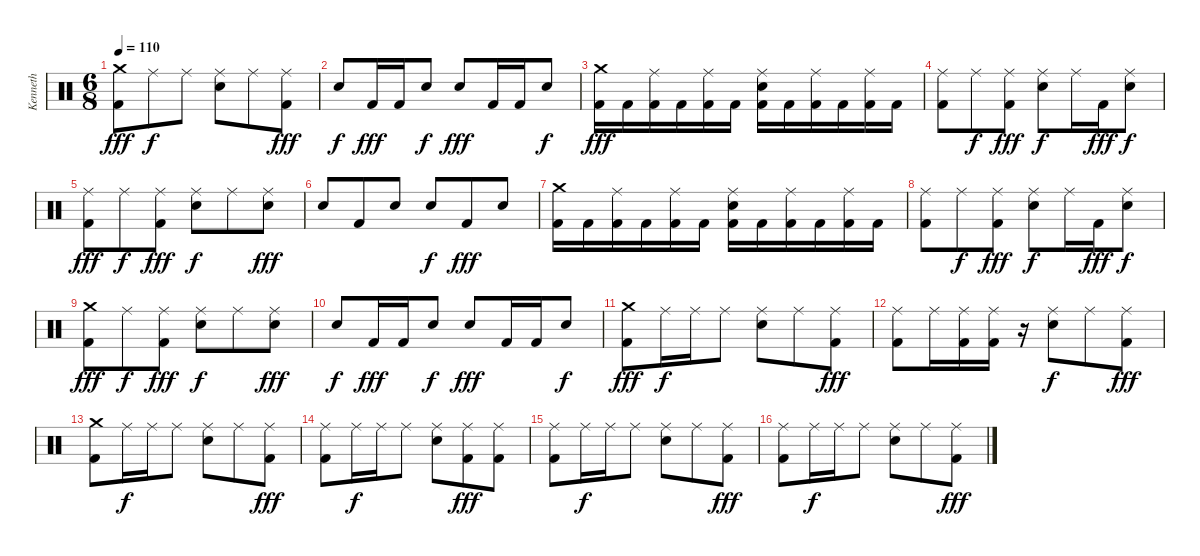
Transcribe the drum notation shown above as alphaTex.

\track ("Kenneth" "Kenneth") {instrument percussion}
\staff {score}
\articulation defaults
\ts (6 8)
\tempo 110
\clef neutral
\ks c
("Crash medium (hit)" "Kick (hit) 2").8{dy fff} "Ride (middle)".8{dy f} "Ride (middle)".8 ("Ride (middle)" "Electric Snare (hit)").8 "Ride (middle)".8 ("Ride (middle)" "Kick (hit) 2").8{dy fff} |
"Electric Snare (hit)".8{dy f} "Kick (hit) 2".16{dy fff} "Kick (hit) 2".16 "Electric Snare (hit)".8{dy f} "Electric Snare (hit)".8{dy fff} "Kick (hit) 2".16 "Kick (hit) 2".16 "Electric Snare (hit)".8{dy f} |
("Crash medium (hit)" "Kick (hit) 2").16{dy fff} "Kick (hit) 2".16 ("Ride (middle)" "Kick (hit) 2").16 "Kick (hit) 2".16 ("Ride (middle)" "Kick (hit) 2").16 "Kick (hit) 2".16 ("Ride (middle)" "Electric Snare (hit)" "Kick (hit) 2").16 "Kick (hit) 2".16 ("Ride (middle)" "Kick (hit) 2").16 "Kick (hit) 2".16 ("Ride (middle)" "Kick (hit) 2").16 "Kick (hit) 2".16 |
("Ride (middle)" "Kick (hit) 2").8 "Ride (middle)".8{dy f} ("Ride (middle)" "Kick (hit) 2").8{dy fff} ("Ride (middle)" "Electric Snare (hit)").8{dy f} "Ride (middle)".16 "Kick (hit) 2".16{dy fff} ("Ride (middle)" "Electric Snare (hit)").8{dy f} |
("Ride (middle)" "Kick (hit) 2").8{dy fff} "Ride (middle)".8{dy f} ("Ride (middle)" "Kick (hit) 2").8{dy fff} ("Ride (middle)" "Electric Snare (hit)").8{dy f} "Ride (middle)".8 ("Ride (middle)" "Electric Snare (hit)").8{dy fff} |
"Electric Snare (hit)".8 "Kick (hit) 2".8 "Electric Snare (hit)".8 "Electric Snare (hit)".8{dy f} "Kick (hit) 2".8{dy fff} "Electric Snare (hit)".8 |
("Crash medium (hit)" "Kick (hit) 2").16 "Kick (hit) 2".16 ("Ride (middle)" "Kick (hit) 2").16 "Kick (hit) 2".16 ("Ride (middle)" "Kick (hit) 2").16 "Kick (hit) 2".16 ("Ride (middle)" "Electric Snare (hit)" "Kick (hit) 2").16 "Kick (hit) 2".16 ("Ride (middle)" "Kick (hit) 2").16 "Kick (hit) 2".16 ("Ride (middle)" "Kick (hit) 2").16 "Kick (hit) 2".16 |
("Ride (middle)" "Kick (hit) 2").8 "Ride (middle)".8{dy f} ("Ride (middle)" "Kick (hit) 2").8{dy fff} ("Ride (middle)" "Electric Snare (hit)").8{dy f} "Ride (middle)".16 "Kick (hit) 2".16{dy fff} ("Ride (middle)" "Electric Snare (hit)").8{dy f} |
("Crash medium (hit)" "Kick (hit) 2").8{dy fff} "Ride (middle)".8{dy f} ("Ride (middle)" "Kick (hit) 2").8{dy fff} ("Ride (middle)" "Electric Snare (hit)").8{dy f} "Ride (middle)".8 ("Ride (middle)" "Electric Snare (hit)").8{dy fff} |
"Electric Snare (hit)".8{dy f} "Kick (hit) 2".16{dy fff} "Kick (hit) 2".16 "Electric Snare (hit)".8{dy f} "Electric Snare (hit)".8{dy fff} "Kick (hit) 2".16 "Kick (hit) 2".16 "Electric Snare (hit)".8{dy f} |
("Crash medium (hit)" "Kick (hit) 2").8{dy fff} "Ride (middle)".16{dy f} "Ride (middle)".16 "Ride (middle)".8 ("Ride (middle)" "Snare (hit) 2").8 "Ride (middle)".8 ("Ride (middle)" "Kick (hit) 2").8{dy fff} |
("Ride (middle)" "Kick (hit) 2").8 "Ride (middle)".16 ("Ride (middle)" "Kick (hit) 2").16 ("Ride (middle)" "Kick (hit) 2").16 r.16 ("Ride (middle)" "Snare (hit) 2").8{dy f} "Ride (middle)".8 ("Ride (middle)" "Kick (hit) 2").8{dy fff} |
("Crash medium (hit)" "Kick (hit) 2").8 "Ride (middle)".16{dy f} "Ride (middle)".16 "Ride (middle)".8 ("Ride (middle)" "Snare (hit) 2").8 "Ride (middle)".8 ("Ride (middle)" "Kick (hit) 2").8{dy fff} |
("Ride (middle)" "Kick (hit) 2").8 "Ride (middle)".16{dy f} "Ride (middle)".16 "Ride (middle)".8 ("Ride (middle)" "Snare (hit) 2").8 ("Ride (middle)" "Kick (hit) 2").8{dy fff} ("Ride (middle)" "Kick (hit) 2").8 |
("Ride (middle)" "Kick (hit) 2").8 "Ride (middle)".16{dy f} "Ride (middle)".16 "Ride (middle)".8 ("Ride (middle)" "Snare (hit) 2").8 "Ride (middle)".8 ("Ride (middle)" "Kick (hit) 2").8{dy fff} |
("Ride (middle)" "Kick (hit) 2").8 "Ride (middle)".16{dy f} "Ride (middle)".16 "Ride (middle)".8 ("Ride (middle)" "Snare (hit) 2").8 "Ride (middle)".8 ("Ride (middle)" "Kick (hit) 2").8{dy fff}
